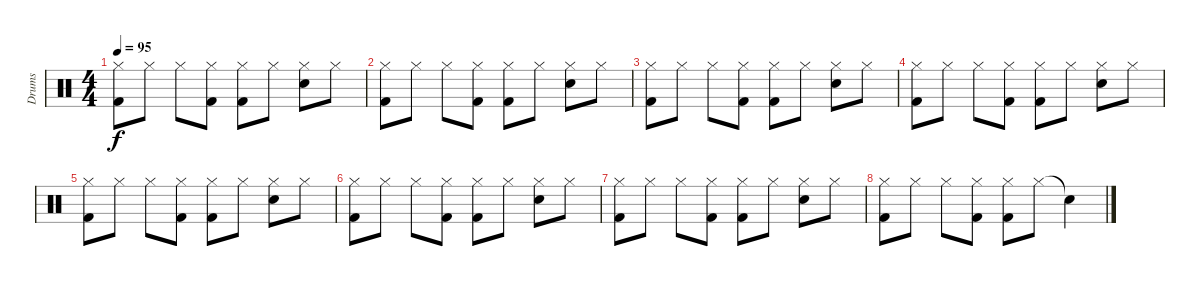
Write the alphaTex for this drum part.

\track ("Drums" "Drums") {instrument percussion}
\staff {score}
\articulation defaults
\ts (4 4)
\tempo 95
\clef neutral
\ks c
("Kick (hit) 2" "Hi-Hat (closed)").8{dy f} "Hi-Hat (closed)".8 "Hi-Hat (closed)".8 ("Kick (hit) 2" "Hi-Hat (closed)").8 ("Kick (hit) 2" "Hi-Hat (closed)").8 "Hi-Hat (closed)".8 ("Snare (hit) 2" "Hi-Hat (closed)").8 "Hi-Hat (closed)".8 |
("Kick (hit) 2" "Hi-Hat (closed)").8 "Hi-Hat (closed)".8 "Hi-Hat (closed)".8 ("Kick (hit) 2" "Hi-Hat (closed)").8 ("Kick (hit) 2" "Hi-Hat (closed)").8 "Hi-Hat (closed)".8 ("Snare (hit) 2" "Hi-Hat (closed)").8 "Hi-Hat (closed)".8 |
("Kick (hit) 2" "Hi-Hat (closed)").8 "Hi-Hat (closed)".8 "Hi-Hat (closed)".8 ("Kick (hit) 2" "Hi-Hat (closed)").8 ("Kick (hit) 2" "Hi-Hat (closed)").8 "Hi-Hat (closed)".8 ("Snare (hit) 2" "Hi-Hat (closed)").8 "Hi-Hat (closed)".8 |
("Kick (hit) 2" "Hi-Hat (closed)").8 "Hi-Hat (closed)".8 "Hi-Hat (closed)".8 ("Kick (hit) 2" "Hi-Hat (closed)").8 ("Kick (hit) 2" "Hi-Hat (closed)").8 "Hi-Hat (closed)".8 ("Snare (hit) 2" "Hi-Hat (closed)").8 "Hi-Hat (closed)".8 |
("Kick (hit) 2" "Hi-Hat (closed)").8 "Hi-Hat (closed)".8 "Hi-Hat (closed)".8 ("Kick (hit) 2" "Hi-Hat (closed)").8 ("Kick (hit) 2" "Hi-Hat (closed)").8 "Hi-Hat (closed)".8 ("Snare (hit) 2" "Hi-Hat (closed)").8 "Hi-Hat (closed)".8 |
("Kick (hit) 2" "Hi-Hat (closed)").8 "Hi-Hat (closed)".8 "Hi-Hat (closed)".8 ("Kick (hit) 2" "Hi-Hat (closed)").8 ("Kick (hit) 2" "Hi-Hat (closed)").8 "Hi-Hat (closed)".8 ("Snare (hit) 2" "Hi-Hat (closed)").8 "Hi-Hat (closed)".8 |
("Kick (hit) 2" "Hi-Hat (closed)").8 "Hi-Hat (closed)".8 "Hi-Hat (closed)".8 ("Kick (hit) 2" "Hi-Hat (closed)").8 ("Kick (hit) 2" "Hi-Hat (closed)").8 "Hi-Hat (closed)".8 ("Snare (hit) 2" "Hi-Hat (closed)").8 "Hi-Hat (closed)".8 |
("Kick (hit) 2" "Hi-Hat (closed)").8 "Hi-Hat (closed)".8 "Hi-Hat (closed)".8 ("Kick (hit) 2" "Hi-Hat (closed)").8 ("Kick (hit) 2" "Hi-Hat (closed)").8 "Hi-Hat (closed)".8 "Snare (hit)"{t}.4
